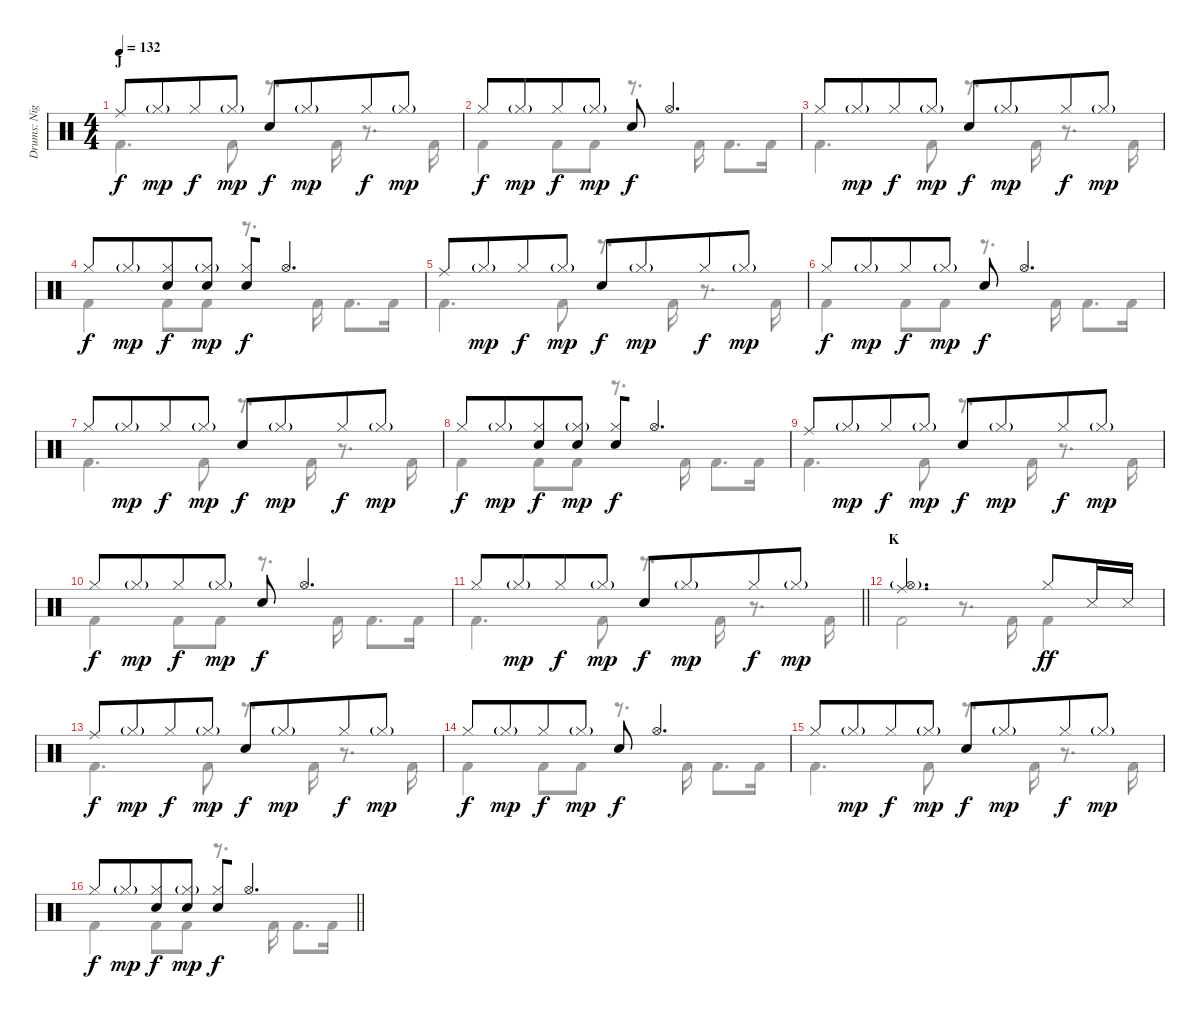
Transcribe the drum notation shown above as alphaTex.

\track ("Drums: Nigel Ollson" "Drums: Nig") {instrument percussion}
\staff {score}
\articulation defaults
\voice
\ts (4 4)
\section ("" "J")
\tempo 132
\clef neutral
\ks c "Ride (middle)".8{dy f} "Hi-Hat (closed)"{g}.8{dy mp beam merge} "Hi-Hat (closed)".8{dy f} "Hi-Hat (closed)"{g}.8{dy mp} "Electric Snare (hit)".8{dy f} "Hi-Hat (closed)"{g}.8{dy mp beam merge} "Hi-Hat (closed)".8{dy f} "Hi-Hat (closed)"{g}.8{dy mp}
|
"Hi-Hat (closed)".8{dy f} "Hi-Hat (closed)"{g}.8{dy mp beam merge} "Hi-Hat (closed)".8{dy f} "Hi-Hat (closed)"{g}.8{dy mp} "Electric Snare (hit)".8{dy f} "Hi-Hat (open)".4{d} |
"Hi-Hat (closed)".8 "Hi-Hat (closed)"{g}.8{dy mp beam merge} "Hi-Hat (closed)".8{dy f} "Hi-Hat (closed)"{g}.8{dy mp} "Electric Snare (hit)".8{dy f} "Hi-Hat (closed)"{g}.8{dy mp beam merge} "Hi-Hat (closed)".8{dy f} "Hi-Hat (closed)"{g}.8{dy mp} |
"Hi-Hat (closed)".8{dy f} "Hi-Hat (closed)"{g}.8{dy mp beam merge} ("Hi-Hat (closed)" "Electric Snare (hit)").8{dy f} ("Hi-Hat (closed)"{g} "Electric Snare (hit)").8{dy mp} ("Hi-Hat (closed)" "Electric Snare (hit)").8{dy f beam merge} "Hi-Hat (open)".4{d} |
"Ride (middle)".8 "Hi-Hat (closed)"{g}.8{dy mp beam merge} "Hi-Hat (closed)".8{dy f} "Hi-Hat (closed)"{g}.8{dy mp} "Electric Snare (hit)".8{dy f} "Hi-Hat (closed)"{g}.8{dy mp beam merge} "Hi-Hat (closed)".8{dy f} "Hi-Hat (closed)"{g}.8{dy mp} |
"Hi-Hat (closed)".8{dy f} "Hi-Hat (closed)"{g}.8{dy mp beam merge} "Hi-Hat (closed)".8{dy f} "Hi-Hat (closed)"{g}.8{dy mp} "Electric Snare (hit)".8{dy f} "Hi-Hat (open)".4{d} |
"Hi-Hat (closed)".8 "Hi-Hat (closed)"{g}.8{dy mp beam merge} "Hi-Hat (closed)".8{dy f} "Hi-Hat (closed)"{g}.8{dy mp} "Electric Snare (hit)".8{dy f} "Hi-Hat (closed)"{g}.8{dy mp beam merge} "Hi-Hat (closed)".8{dy f} "Hi-Hat (closed)"{g}.8{dy mp} |
"Hi-Hat (closed)".8{dy f} "Hi-Hat (closed)"{g}.8{dy mp beam merge} ("Hi-Hat (closed)" "Electric Snare (hit)").8{dy f} ("Hi-Hat (closed)"{g} "Electric Snare (hit)").8{dy mp} ("Hi-Hat (closed)" "Electric Snare (hit)").8{dy f beam merge} "Hi-Hat (open)".4{d} |
"Ride (middle)".8 "Hi-Hat (closed)"{g}.8{dy mp beam merge} "Hi-Hat (closed)".8{dy f} "Hi-Hat (closed)"{g}.8{dy mp} "Electric Snare (hit)".8{dy f} "Hi-Hat (closed)"{g}.8{dy mp beam merge} "Hi-Hat (closed)".8{dy f} "Hi-Hat (closed)"{g}.8{dy mp} |
"Hi-Hat (closed)".8{dy f} "Hi-Hat (closed)"{g}.8{dy mp beam merge} "Hi-Hat (closed)".8{dy f} "Hi-Hat (closed)"{g}.8{dy mp} "Electric Snare (hit)".8{dy f} "Hi-Hat (open)".4{d} |
\barLineRight lightlight "Hi-Hat (closed)".8 "Hi-Hat (closed)"{g}.8{dy mp beam merge} "Hi-Hat (closed)".8{dy f} "Hi-Hat (closed)"{g}.8{dy mp} "Electric Snare (hit)".8{dy f} "Hi-Hat (closed)"{g}.8{dy mp beam merge} "Hi-Hat (closed)".8{dy f} "Hi-Hat (closed)"{g}.8{dy mp}
|
\section ("" "K")
("Ride (middle)" "Hi-Hat (open)"{g}).2{d} "Hi-Hat (closed)".8{dy ff} "Snare (side stick) 3".16 "Snare (side stick) 3".16 |
"Ride (middle)".8{dy f} "Hi-Hat (closed)"{g}.8{dy mp beam merge} "Hi-Hat (closed)".8{dy f} "Hi-Hat (closed)"{g}.8{dy mp} "Electric Snare (hit)".8{dy f} "Hi-Hat (closed)"{g}.8{dy mp beam merge} "Hi-Hat (closed)".8{dy f} "Hi-Hat (closed)"{g}.8{dy mp} |
"Hi-Hat (closed)".8{dy f} "Hi-Hat (closed)"{g}.8{dy mp beam merge} "Hi-Hat (closed)".8{dy f} "Hi-Hat (closed)"{g}.8{dy mp} "Electric Snare (hit)".8{dy f} "Hi-Hat (open)".4{d} |
"Hi-Hat (closed)".8 "Hi-Hat (closed)"{g}.8{dy mp beam merge} "Hi-Hat (closed)".8{dy f} "Hi-Hat (closed)"{g}.8{dy mp} "Electric Snare (hit)".8{dy f} "Hi-Hat (closed)"{g}.8{dy mp beam merge} "Hi-Hat (closed)".8{dy f} "Hi-Hat (closed)"{g}.8{dy mp} |
\barLineRight lightlight "Hi-Hat (closed)".8{dy f} "Hi-Hat (closed)"{g}.8{dy mp beam merge}
("Hi-Hat (closed)" "Electric Snare (hit)").8{dy f} ("Hi-Hat (closed)"{g} "Electric Snare (hit)").8{dy mp} ("Hi-Hat (closed)" "Electric Snare (hit)").8{dy f beam merge} "Hi-Hat (open)".4{d}
\voice
\clef neutral
\ottava regular
\simile none
\ks c "Kick (hit) 2".4{d dy f} "Kick (hit) 2".8
r.8{d} "Kick (hit) 2".16 r.8{d} "Kick (hit) 2".16 |
"Kick (hit) 2".4 "Kick (hit) 2".8 "Kick (hit) 2".8 r.8{d} "Kick (hit) 2".16 "Kick (hit) 2".8{d} "Kick (hit) 2".16 |
"Kick (hit) 2".4{d} "Kick (hit) 2".8 r.8{d} "Kick (hit) 2".16 r.8{d} "Kick (hit) 2".16 |
"Kick (hit) 2".4 "Kick (hit) 2".8 "Kick (hit) 2".8 r.8{d} "Kick (hit) 2".16 "Kick (hit) 2".8{d} "Kick (hit) 2".16 |
"Kick (hit) 2".4{d} "Kick (hit) 2".8 r.8{d} "Kick (hit) 2".16 r.8{d} "Kick (hit) 2".16 |
"Kick (hit) 2".4 "Kick (hit) 2".8 "Kick (hit) 2".8 r.8{d} "Kick (hit) 2".16 "Kick (hit) 2".8{d} "Kick (hit) 2".16 |
"Kick (hit) 2".4{d} "Kick (hit) 2".8 r.8{d} "Kick (hit) 2".16 r.8{d} "Kick (hit) 2".16 |
"Kick (hit) 2".4 "Kick (hit) 2".8 "Kick (hit) 2".8 r.8{d} "Kick (hit) 2".16 "Kick (hit) 2".8{d} "Kick (hit) 2".16 |
"Kick (hit) 2".4{d} "Kick (hit) 2".8 r.8{d} "Kick (hit) 2".16 r.8{d} "Kick (hit) 2".16 |
"Kick (hit) 2".4 "Kick (hit) 2".8 "Kick (hit) 2".8 r.8{d} "Kick (hit) 2".16 "Kick (hit) 2".8{d} "Kick (hit) 2".16 |
\barLineRight lightlight "Kick (hit) 2".4{d} "Kick (hit) 2".8
r.8{d} "Kick (hit) 2".16 r.8{d} "Kick (hit) 2".16 |
"Kick (hit) 2".2 r.8{d} "Kick (hit) 2".16 "Kick (hit) 2".4 |
"Kick (hit) 2".4{d} "Kick (hit) 2".8 r.8{d} "Kick (hit) 2".16 r.8{d} "Kick (hit) 2".16 |
"Kick (hit) 2".4 "Kick (hit) 2".8 "Kick (hit) 2".8 r.8{d} "Kick (hit) 2".16 "Kick (hit) 2".8{d} "Kick (hit) 2".16 |
"Kick (hit) 2".4{d} "Kick (hit) 2".8 r.8{d} "Kick (hit) 2".16 r.8{d} "Kick (hit) 2".16 |
\barLineRight lightlight "Kick (hit) 2".4 "Kick (hit) 2".8 "Kick (hit) 2".8
r.8{d} "Kick (hit) 2".16 "Kick (hit) 2".8{d} "Kick (hit) 2".16
